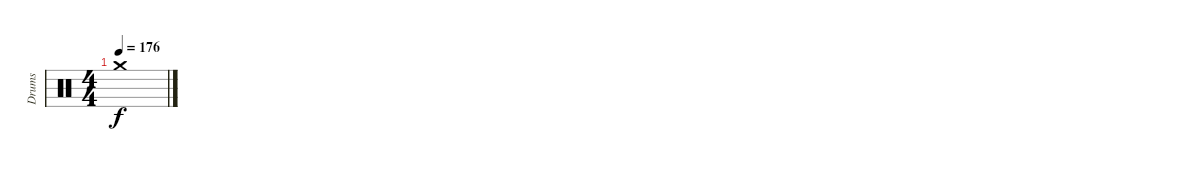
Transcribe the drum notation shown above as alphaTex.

\track ("Drums" "Drums") {instrument percussion}
\staff {score}
\articulation defaults
\ts (4 4)
\tempo 176
\clef neutral
\ks c "Crash medium (hit)".1{dy f}
